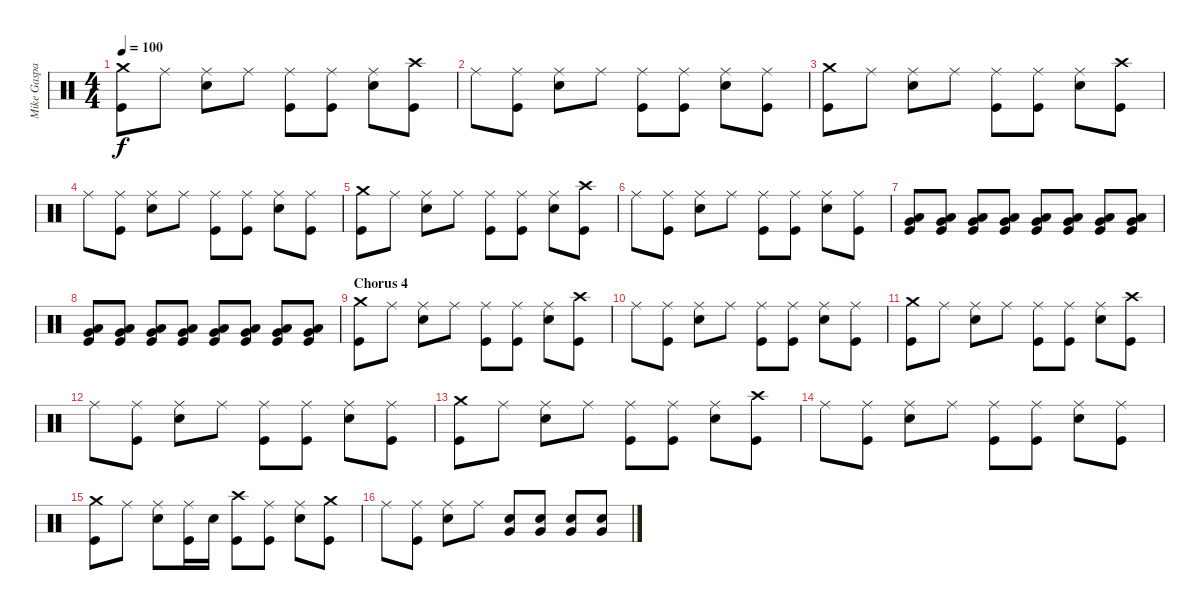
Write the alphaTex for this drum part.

\track ("Mike Gaspar" "Mike Gaspa") {instrument percussion}
\staff {score}
\articulation defaults
\ts (4 4)
\tempo 100
\clef neutral
\ks c
("Crash medium (hit)" "Kick (hit)").8{dy f} "Ride (middle)".8 ("Ride (middle)" "Electric Snare (hit)").8 "Ride (middle)".8 ("Ride (middle)" "Kick (hit)").8 ("Ride (middle)" "Kick (hit)").8 ("Ride (middle)" "Electric Snare (hit)").8 ("Crash high (hit)" "Kick (hit)").8 |
"Ride (middle)".8 ("Ride (middle)" "Kick (hit)").8 ("Ride (middle)" "Electric Snare (hit)").8 "Ride (middle)".8 ("Ride (middle)" "Kick (hit)").8 ("Ride (middle)" "Kick (hit)").8 ("Ride (middle)" "Electric Snare (hit)").8 ("Ride (middle)" "Kick (hit)").8 |
("Crash medium (hit)" "Kick (hit)").8 "Ride (middle)".8 ("Ride (middle)" "Electric Snare (hit)").8 "Ride (middle)".8 ("Ride (middle)" "Kick (hit)").8 ("Ride (middle)" "Kick (hit)").8 ("Ride (middle)" "Electric Snare (hit)").8 ("Crash high (hit)" "Kick (hit)").8 |
"Ride (middle)".8 ("Ride (middle)" "Kick (hit)").8 ("Ride (middle)" "Electric Snare (hit)").8 "Ride (middle)".8 ("Ride (middle)" "Kick (hit)").8 ("Ride (middle)" "Kick (hit)").8 ("Ride (middle)" "Electric Snare (hit)").8 ("Ride (middle)" "Kick (hit)").8 |
("Crash medium (hit)" "Kick (hit)").8 "Ride (middle)".8 ("Ride (middle)" "Electric Snare (hit)").8 "Ride (middle)".8 ("Ride (middle)" "Kick (hit)").8 ("Ride (middle)" "Kick (hit)").8 ("Ride (middle)" "Electric Snare (hit)").8 ("Crash high (hit)" "Kick (hit)").8 |
"Ride (middle)".8 ("Ride (middle)" "Kick (hit)").8 ("Ride (middle)" "Electric Snare (hit)").8 "Ride (middle)".8 ("Ride (middle)" "Kick (hit)").8 ("Ride (middle)" "Kick (hit)").8 ("Ride (middle)" "Electric Snare (hit)").8 ("Ride (middle)" "Kick (hit)").8 |
("Low Tom (hit)" "Very Low Tom (hit)" "Kick (hit)").8 ("Low Tom (hit)" "Very Low Tom (hit)" "Kick (hit)").8 ("Low Tom (hit)" "Very Low Tom (hit)" "Kick (hit)").8 ("Low Tom (hit)" "Very Low Tom (hit)" "Kick (hit)").8 ("Low Tom (hit)" "Very Low Tom (hit)" "Kick (hit)").8 ("Low Tom (hit)" "Very Low Tom (hit)" "Kick (hit)").8 ("Low Tom (hit)" "Very Low Tom (hit)" "Kick (hit)").8 ("Low Tom (hit)" "Very Low Tom (hit)" "Kick (hit)").8 |
("Low Tom (hit)" "Very Low Tom (hit)" "Kick (hit)").8 ("Low Tom (hit)" "Very Low Tom (hit)" "Kick (hit)").8 ("Low Tom (hit)" "Very Low Tom (hit)" "Kick (hit)").8 ("Low Tom (hit)" "Very Low Tom (hit)" "Kick (hit)").8 ("Low Tom (hit)" "Very Low Tom (hit)" "Kick (hit)").8 ("Low Tom (hit)" "Very Low Tom (hit)" "Kick (hit)").8 ("Low Tom (hit)" "Very Low Tom (hit)" "Kick (hit)").8 ("Low Tom (hit)" "Very Low Tom (hit)" "Kick (hit)").8 |
\section ("" "Chorus 4")
("Crash medium (hit)" "Kick (hit)").8 "Ride (middle)".8 ("Ride (middle)" "Electric Snare (hit)").8 "Ride (middle)".8 ("Ride (middle)" "Kick (hit)").8 ("Ride (middle)" "Kick (hit)").8 ("Ride (middle)" "Electric Snare (hit)").8 ("Crash high (hit)" "Kick (hit)").8 |
"Ride (middle)".8 ("Ride (middle)" "Kick (hit)").8 ("Ride (middle)" "Electric Snare (hit)").8 "Ride (middle)".8 ("Ride (middle)" "Kick (hit)").8 ("Ride (middle)" "Kick (hit)").8 ("Ride (middle)" "Electric Snare (hit)").8 ("Ride (middle)" "Kick (hit)").8 |
("Crash medium (hit)" "Kick (hit)").8 "Ride (middle)".8 ("Ride (middle)" "Electric Snare (hit)").8 "Ride (middle)".8 ("Ride (middle)" "Kick (hit)").8 ("Ride (middle)" "Kick (hit)").8 ("Ride (middle)" "Electric Snare (hit)").8 ("Crash high (hit)" "Kick (hit)").8 |
"Ride (middle)".8 ("Ride (middle)" "Kick (hit)").8 ("Ride (middle)" "Electric Snare (hit)").8 "Ride (middle)".8 ("Ride (middle)" "Kick (hit)").8 ("Ride (middle)" "Kick (hit)").8 ("Ride (middle)" "Electric Snare (hit)").8 ("Ride (middle)" "Kick (hit)").8 |
("Crash medium (hit)" "Kick (hit)").8 "Ride (middle)".8 ("Ride (middle)" "Electric Snare (hit)").8 "Ride (middle)".8 ("Ride (middle)" "Kick (hit)").8 ("Ride (middle)" "Kick (hit)").8 ("Ride (middle)" "Electric Snare (hit)").8 ("Crash high (hit)" "Kick (hit)").8 |
"Ride (middle)".8 ("Ride (middle)" "Kick (hit)").8 ("Ride (middle)" "Electric Snare (hit)").8 "Ride (middle)".8 ("Ride (middle)" "Kick (hit)").8 ("Ride (middle)" "Kick (hit)").8 ("Ride (middle)" "Electric Snare (hit)").8 ("Ride (middle)" "Kick (hit)").8 |
("Crash medium (hit)" "Kick (hit)").8 "Ride (middle)".8 ("Ride (middle)" "Electric Snare (hit)").8 ("Ride (middle)" "Kick (hit)").16 "Electric Snare (hit)".16 ("Crash high (hit)" "Kick (hit)").8 ("Ride (middle)" "Kick (hit)").8 ("Ride (middle)" "Electric Snare (hit)").8 ("Crash medium (hit)" "Kick (hit)").8 |
"Ride (middle)".8 ("Ride (middle)" "Kick (hit)").8 ("Ride (middle)" "Electric Snare (hit)").8 "Ride (middle)".8 ("Electric Snare (hit)" "Very Low Tom (hit)").8 ("Electric Snare (hit)" "Very Low Tom (hit)").8 ("Electric Snare (hit)" "Very Low Tom (hit)").8 ("Electric Snare (hit)" "Very Low Tom (hit)").8
